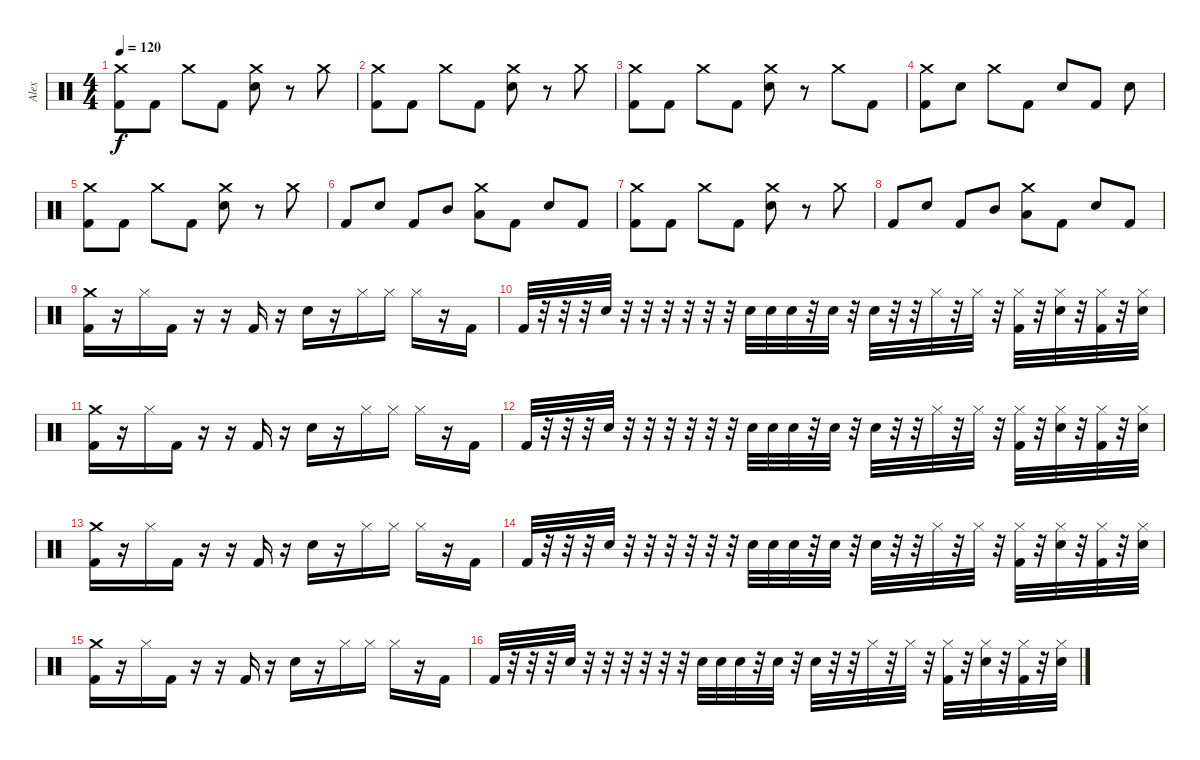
\track ("Alex" "Alex") {instrument percussion}
\staff {score}
\articulation defaults
\ts (4 4)
\tempo 120
\clef neutral
\ks c
("Crash medium (hit)" "Kick (hit) 2").8{dy f} "Kick (hit) 2".8 "Crash medium (hit)".8 "Kick (hit) 2".8 ("Crash medium (hit)" "Snare (hit) 2").8 r.8 "Crash medium (hit)".8 |
("Crash medium (hit)" "Kick (hit) 2").8 "Kick (hit) 2".8 "Crash medium (hit)".8 "Kick (hit) 2".8 ("Crash medium (hit)" "Snare (hit) 2").8 r.8 "Crash medium (hit)".8 |
("Crash medium (hit)" "Kick (hit) 2").8 "Kick (hit) 2".8 "Crash medium (hit)".8 "Kick (hit) 2".8 ("Crash medium (hit)" "Snare (hit) 2").8 r.8 "Crash medium (hit)".8 "Kick (hit) 2".8 |
("Crash medium (hit)" "Kick (hit) 2").8 "Snare (hit) 2".8 "Crash medium (hit)".8 "Kick (hit) 2".8 "Snare (hit) 2".8 "Kick (hit) 2".8 "Snare (hit) 2".8 |
("Crash medium (hit)" "Kick (hit) 2").8 "Kick (hit) 2".8 "Crash medium (hit)".8 "Kick (hit) 2".8 ("Crash medium (hit)" "Snare (hit) 2").8 r.8 "Crash medium (hit)".8 |
"Kick (hit) 2".8 "Snare (hit) 2".8 "Kick (hit) 2".8 "Mid Tom (hit)".8 ("Crash medium (hit)" "Low Tom (hit)").8 "Kick (hit) 2".8 "Snare (hit) 2".8 "Kick (hit) 2".8 |
("Crash medium (hit)" "Kick (hit) 2").8 "Kick (hit) 2".8 "Crash medium (hit)".8 "Kick (hit) 2".8 ("Crash medium (hit)" "Snare (hit) 2").8 r.8 "Crash medium (hit)".8 |
"Kick (hit) 2".8 "Snare (hit) 2".8 "Kick (hit) 2".8 "Mid Tom (hit)".8 ("Crash medium (hit)" "Low Tom (hit)").8 "Kick (hit) 2".8 "Snare (hit) 2".8 "Kick (hit) 2".8 |
("Crash medium (hit)" "Kick (hit) 2").16 r.16 "Hi-Hat (closed)".16 "Kick (hit) 2".16 r.16 r.16 "Kick (hit) 2".16 r.16 "Snare (hit) 2".16 r.16 "Hi-Hat (closed)".16 "Hi-Hat (closed)".16 "Hi-Hat (closed)".16 r.16 "Kick (hit) 2".16 |
"Kick (hit) 2".32 r.32 r.32 r.32 "Snare (hit) 2".32 r.32 r.32 r.32 r.32 r.32 r.32 "Snare (hit) 2".32 "Snare (hit) 2".32 "Snare (hit) 2".32 r.32 "Snare (hit) 2".32 r.32 "Snare (hit) 2".32 r.32 r.32 "Hi-Hat (closed)".32 r.32 "Hi-Hat (closed)".32 r.32 ("Hi-Hat (closed)" "Kick (hit) 2").32 r.32 ("Hi-Hat (closed)" "Snare (hit) 2").32 r.32 ("Hi-Hat (closed)" "Kick (hit) 2").32 r.32 ("Hi-Hat (closed)" "Snare (hit) 2").32 |
("Crash medium (hit)" "Kick (hit) 2").16 r.16 "Hi-Hat (closed)".16 "Kick (hit) 2".16 r.16 r.16 "Kick (hit) 2".16 r.16 "Snare (hit) 2".16 r.16 "Hi-Hat (closed)".16 "Hi-Hat (closed)".16 "Hi-Hat (closed)".16 r.16 "Kick (hit) 2".16 |
"Kick (hit) 2".32 r.32 r.32 r.32 "Snare (hit) 2".32 r.32 r.32 r.32 r.32 r.32 r.32 "Snare (hit) 2".32 "Snare (hit) 2".32 "Snare (hit) 2".32 r.32 "Snare (hit) 2".32 r.32 "Snare (hit) 2".32 r.32 r.32 "Hi-Hat (closed)".32 r.32 "Hi-Hat (closed)".32 r.32 ("Hi-Hat (closed)" "Kick (hit) 2").32 r.32 ("Hi-Hat (closed)" "Snare (hit) 2").32 r.32 ("Hi-Hat (closed)" "Kick (hit) 2").32 r.32 ("Hi-Hat (closed)" "Snare (hit) 2").32 |
("Crash medium (hit)" "Kick (hit) 2").16 r.16 "Hi-Hat (closed)".16 "Kick (hit) 2".16 r.16 r.16 "Kick (hit) 2".16 r.16 "Snare (hit) 2".16 r.16 "Hi-Hat (closed)".16 "Hi-Hat (closed)".16 "Hi-Hat (closed)".16 r.16 "Kick (hit) 2".16 |
"Kick (hit) 2".32 r.32 r.32 r.32 "Snare (hit) 2".32 r.32 r.32 r.32 r.32 r.32 r.32 "Snare (hit) 2".32 "Snare (hit) 2".32 "Snare (hit) 2".32 r.32 "Snare (hit) 2".32 r.32 "Snare (hit) 2".32 r.32 r.32 "Hi-Hat (closed)".32 r.32 "Hi-Hat (closed)".32 r.32 ("Hi-Hat (closed)" "Kick (hit) 2").32 r.32 ("Hi-Hat (closed)" "Snare (hit) 2").32 r.32 ("Hi-Hat (closed)" "Kick (hit) 2").32 r.32 ("Hi-Hat (closed)" "Snare (hit) 2").32 |
("Crash medium (hit)" "Kick (hit) 2").16 r.16 "Hi-Hat (closed)".16 "Kick (hit) 2".16 r.16 r.16 "Kick (hit) 2".16 r.16 "Snare (hit) 2".16 r.16 "Hi-Hat (closed)".16 "Hi-Hat (closed)".16 "Hi-Hat (closed)".16 r.16 "Kick (hit) 2".16 |
"Kick (hit) 2".32 r.32 r.32 r.32 "Snare (hit) 2".32 r.32 r.32 r.32 r.32 r.32 r.32 "Snare (hit) 2".32 "Snare (hit) 2".32 "Snare (hit) 2".32 r.32 "Snare (hit) 2".32 r.32 "Snare (hit) 2".32 r.32 r.32 "Hi-Hat (closed)".32 r.32 "Hi-Hat (closed)".32 r.32 ("Hi-Hat (closed)" "Kick (hit) 2").32 r.32 ("Hi-Hat (closed)" "Snare (hit) 2").32 r.32 ("Hi-Hat (closed)" "Kick (hit) 2").32 r.32 ("Hi-Hat (closed)" "Snare (hit) 2").32
